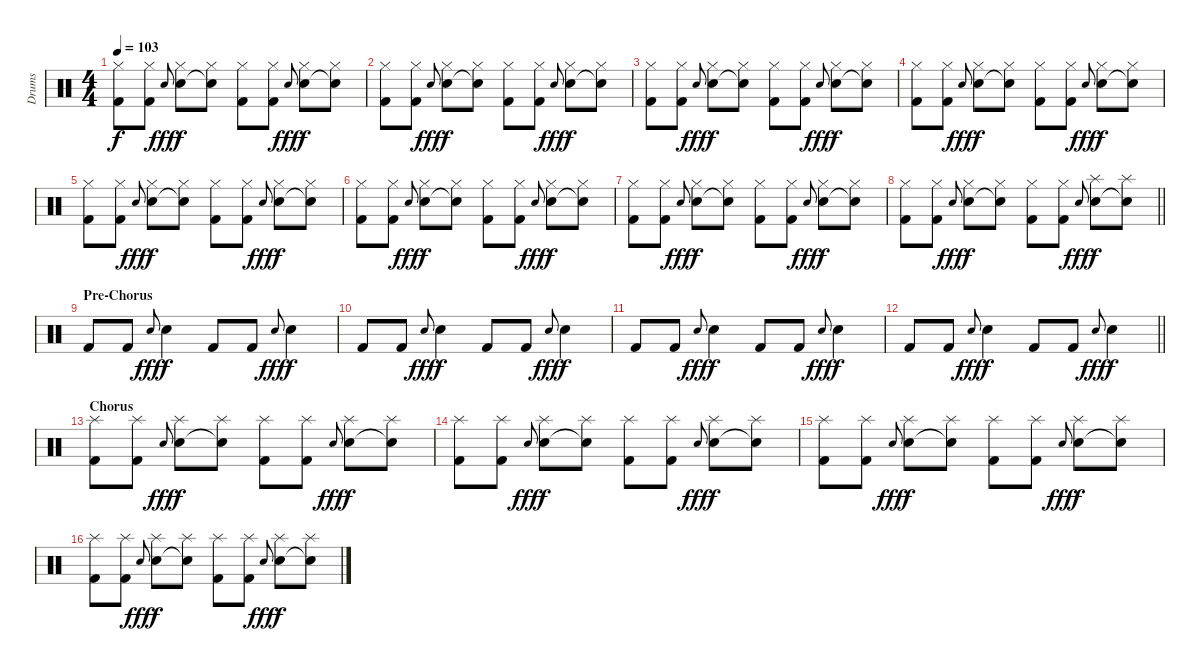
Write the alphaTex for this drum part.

\track ("Drums" "Drums") {instrument percussion}
\staff {score}
\articulation defaults
\ts (4 4)
\tempo 103
\clef neutral
\ks c
("Kick (hit) 2" "Hi-Hat (closed)").8{dy f} ("Kick (hit) 2" "Hi-Hat (closed)").8 "Snare (hit) 2"{h}.8{gr onbeat dy fff} ("Snare (hit) 2" "Hi-Hat (closed)").8{dy f} ("Snare (hit) 2"{t} "Hi-Hat (closed)").8 ("Kick (hit) 2" "Hi-Hat (closed)").8 ("Kick (hit) 2" "Hi-Hat (closed)").8 "Snare (hit) 2"{h}.8{gr onbeat dy fff} ("Snare (hit) 2" "Hi-Hat (closed)").8{dy f} ("Snare (hit) 2"{t} "Hi-Hat (closed)").8 |
("Kick (hit) 2" "Hi-Hat (closed)").8 ("Kick (hit) 2" "Hi-Hat (closed)").8 "Snare (hit) 2"{h}.8{gr onbeat dy fff} ("Snare (hit) 2" "Hi-Hat (closed)").8{dy f} ("Snare (hit) 2"{t} "Hi-Hat (closed)").8 ("Kick (hit) 2" "Hi-Hat (closed)").8 ("Kick (hit) 2" "Hi-Hat (closed)").8 "Snare (hit) 2"{h}.8{gr onbeat dy fff} ("Snare (hit) 2" "Hi-Hat (closed)").8{dy f} ("Snare (hit) 2"{t} "Hi-Hat (closed)").8 |
("Kick (hit) 2" "Hi-Hat (closed)").8 ("Kick (hit) 2" "Hi-Hat (closed)").8 "Snare (hit) 2"{h}.8{gr onbeat dy fff} ("Snare (hit) 2" "Hi-Hat (closed)").8{dy f} ("Snare (hit) 2"{t} "Hi-Hat (closed)").8 ("Kick (hit) 2" "Hi-Hat (closed)").8 ("Kick (hit) 2" "Hi-Hat (closed)").8 "Snare (hit) 2"{h}.8{gr onbeat dy fff} ("Snare (hit) 2" "Hi-Hat (closed)").8{dy f} ("Snare (hit) 2"{t} "Hi-Hat (closed)").8 |
("Kick (hit) 2" "Hi-Hat (closed)").8 ("Kick (hit) 2" "Hi-Hat (closed)").8 "Snare (hit) 2"{h}.8{gr onbeat dy fff} ("Snare (hit) 2" "Hi-Hat (closed)").8{dy f} ("Snare (hit) 2"{t} "Hi-Hat (closed)").8 ("Kick (hit) 2" "Hi-Hat (closed)").8 ("Kick (hit) 2" "Hi-Hat (closed)").8 "Snare (hit) 2"{h}.8{gr onbeat dy fff} ("Snare (hit) 2" "Hi-Hat (closed)").8{dy f} ("Snare (hit) 2"{t} "Hi-Hat (closed)").8 |
("Kick (hit) 2" "Hi-Hat (closed)").8 ("Kick (hit) 2" "Hi-Hat (closed)").8 "Snare (hit) 2"{h}.8{gr onbeat dy fff} ("Snare (hit) 2" "Hi-Hat (closed)").8{dy f} ("Snare (hit) 2"{t} "Hi-Hat (closed)").8 ("Kick (hit) 2" "Hi-Hat (closed)").8 ("Kick (hit) 2" "Hi-Hat (closed)").8 "Snare (hit) 2"{h}.8{gr onbeat dy fff} ("Snare (hit) 2" "Hi-Hat (closed)").8{dy f} ("Snare (hit) 2"{t} "Hi-Hat (closed)").8 |
("Kick (hit) 2" "Hi-Hat (closed)").8 ("Kick (hit) 2" "Hi-Hat (closed)").8 "Snare (hit) 2"{h}.8{gr onbeat dy fff} ("Snare (hit) 2" "Hi-Hat (closed)").8{dy f} ("Snare (hit) 2"{t} "Hi-Hat (closed)").8 ("Kick (hit) 2" "Hi-Hat (closed)").8 ("Kick (hit) 2" "Hi-Hat (closed)").8 "Snare (hit) 2"{h}.8{gr onbeat dy fff} ("Snare (hit) 2" "Hi-Hat (closed)").8{dy f} ("Snare (hit) 2"{t} "Hi-Hat (closed)").8 |
("Kick (hit) 2" "Hi-Hat (closed)").8 ("Kick (hit) 2" "Hi-Hat (closed)").8 "Snare (hit) 2"{h}.8{gr onbeat dy fff} ("Snare (hit) 2" "Hi-Hat (closed)").8{dy f} ("Snare (hit) 2"{t} "Hi-Hat (closed)").8 ("Kick (hit) 2" "Hi-Hat (closed)").8 ("Kick (hit) 2" "Hi-Hat (closed)").8 "Snare (hit) 2"{h}.8{gr onbeat dy fff} ("Snare (hit) 2" "Hi-Hat (closed)").8{dy f} ("Snare (hit) 2"{t} "Hi-Hat (closed)").8 |
\barLineRight lightlight
("Kick (hit) 2" "Hi-Hat (closed)").8 ("Kick (hit) 2" "Hi-Hat (closed)").8 "Snare (hit) 2"{h}.8{gr onbeat dy fff} ("Snare (hit) 2" "Hi-Hat (closed)").8{dy f} ("Snare (hit) 2"{t} "Hi-Hat (closed)").8 ("Kick (hit) 2" "Hi-Hat (closed)").8 ("Kick (hit) 2" "Hi-Hat (closed)").8 "Snare (hit) 2"{h}.8{gr onbeat dy fff} ("Snare (hit) 2" "Splash (hit)").8{dy f} ("Snare (hit) 2"{t} "Splash (hit)").8 |
\section ("" "Pre-Chorus")
"Kick (hit) 2".8 "Kick (hit) 2".8 "Snare (hit) 2"{h}.8{gr onbeat dy fff} "Snare (hit) 2".4{dy f} "Kick (hit) 2".8 "Kick (hit) 2".8 "Snare (hit) 2"{h}.8{gr onbeat dy fff} "Snare (hit) 2".4{dy f} |
"Kick (hit) 2".8 "Kick (hit) 2".8 "Snare (hit) 2"{h}.8{gr onbeat dy fff} "Snare (hit) 2".4{dy f} "Kick (hit) 2".8 "Kick (hit) 2".8 "Snare (hit) 2"{h}.8{gr onbeat dy fff} "Snare (hit) 2".4{dy f} |
"Kick (hit) 2".8 "Kick (hit) 2".8 "Snare (hit) 2"{h}.8{gr onbeat dy fff} "Snare (hit) 2".4{dy f} "Kick (hit) 2".8 "Kick (hit) 2".8 "Snare (hit) 2"{h}.8{gr onbeat dy fff} "Snare (hit) 2".4{dy f} |
\barLineRight lightlight "Kick (hit) 2".8 "Kick (hit) 2".8 "Snare (hit) 2"{h}.8{gr onbeat dy fff} "Snare (hit) 2".4{dy f} "Kick (hit) 2".8 "Kick (hit) 2".8 "Snare (hit) 2"{h}.8{gr onbeat dy fff} "Snare (hit) 2".4{dy f}
|
\section ("" "Chorus")
("Kick (hit) 2" "Splash (hit)").8 ("Kick (hit) 2" "Splash (hit)").8 "Snare (hit) 2"{h}.8{gr onbeat dy fff} ("Snare (hit) 2" "Splash (hit)").8{dy f} ("Snare (hit) 2"{t} "Splash (hit)").8 ("Kick (hit) 2" "Splash (hit)").8 ("Kick (hit) 2" "Splash (hit)").8 "Snare (hit) 2"{h}.8{gr onbeat dy fff} ("Snare (hit) 2" "Splash (hit)").8{dy f} ("Snare (hit) 2"{t} "Splash (hit)").8 |
("Kick (hit) 2" "Splash (hit)").8 ("Kick (hit) 2" "Splash (hit)").8 "Snare (hit) 2"{h}.8{gr onbeat dy fff} ("Snare (hit) 2" "Splash (hit)").8{dy f} ("Snare (hit) 2"{t} "Splash (hit)").8 ("Kick (hit) 2" "Splash (hit)").8 ("Kick (hit) 2" "Splash (hit)").8 "Snare (hit) 2"{h}.8{gr onbeat dy fff} ("Snare (hit) 2" "Splash (hit)").8{dy f} ("Snare (hit) 2"{t} "Splash (hit)").8 |
("Kick (hit) 2" "Splash (hit)").8 ("Kick (hit) 2" "Splash (hit)").8 "Snare (hit) 2"{h}.8{gr onbeat dy fff} ("Snare (hit) 2" "Splash (hit)").8{dy f} ("Snare (hit) 2"{t} "Splash (hit)").8 ("Kick (hit) 2" "Splash (hit)").8 ("Kick (hit) 2" "Splash (hit)").8 "Snare (hit) 2"{h}.8{gr onbeat dy fff} ("Snare (hit) 2" "Splash (hit)").8{dy f} ("Snare (hit) 2"{t} "Splash (hit)").8 |
("Kick (hit) 2" "Splash (hit)").8 ("Kick (hit) 2" "Splash (hit)").8 "Snare (hit) 2"{h}.8{gr onbeat dy fff} ("Snare (hit) 2" "Splash (hit)").8{dy f} ("Snare (hit) 2"{t} "Splash (hit)").8 ("Kick (hit) 2" "Splash (hit)").8 ("Kick (hit) 2" "Splash (hit)").8 "Snare (hit) 2"{h}.8{gr onbeat dy fff} ("Snare (hit) 2" "Splash (hit)").8{dy f} ("Snare (hit) 2"{t} "Splash (hit)").8
